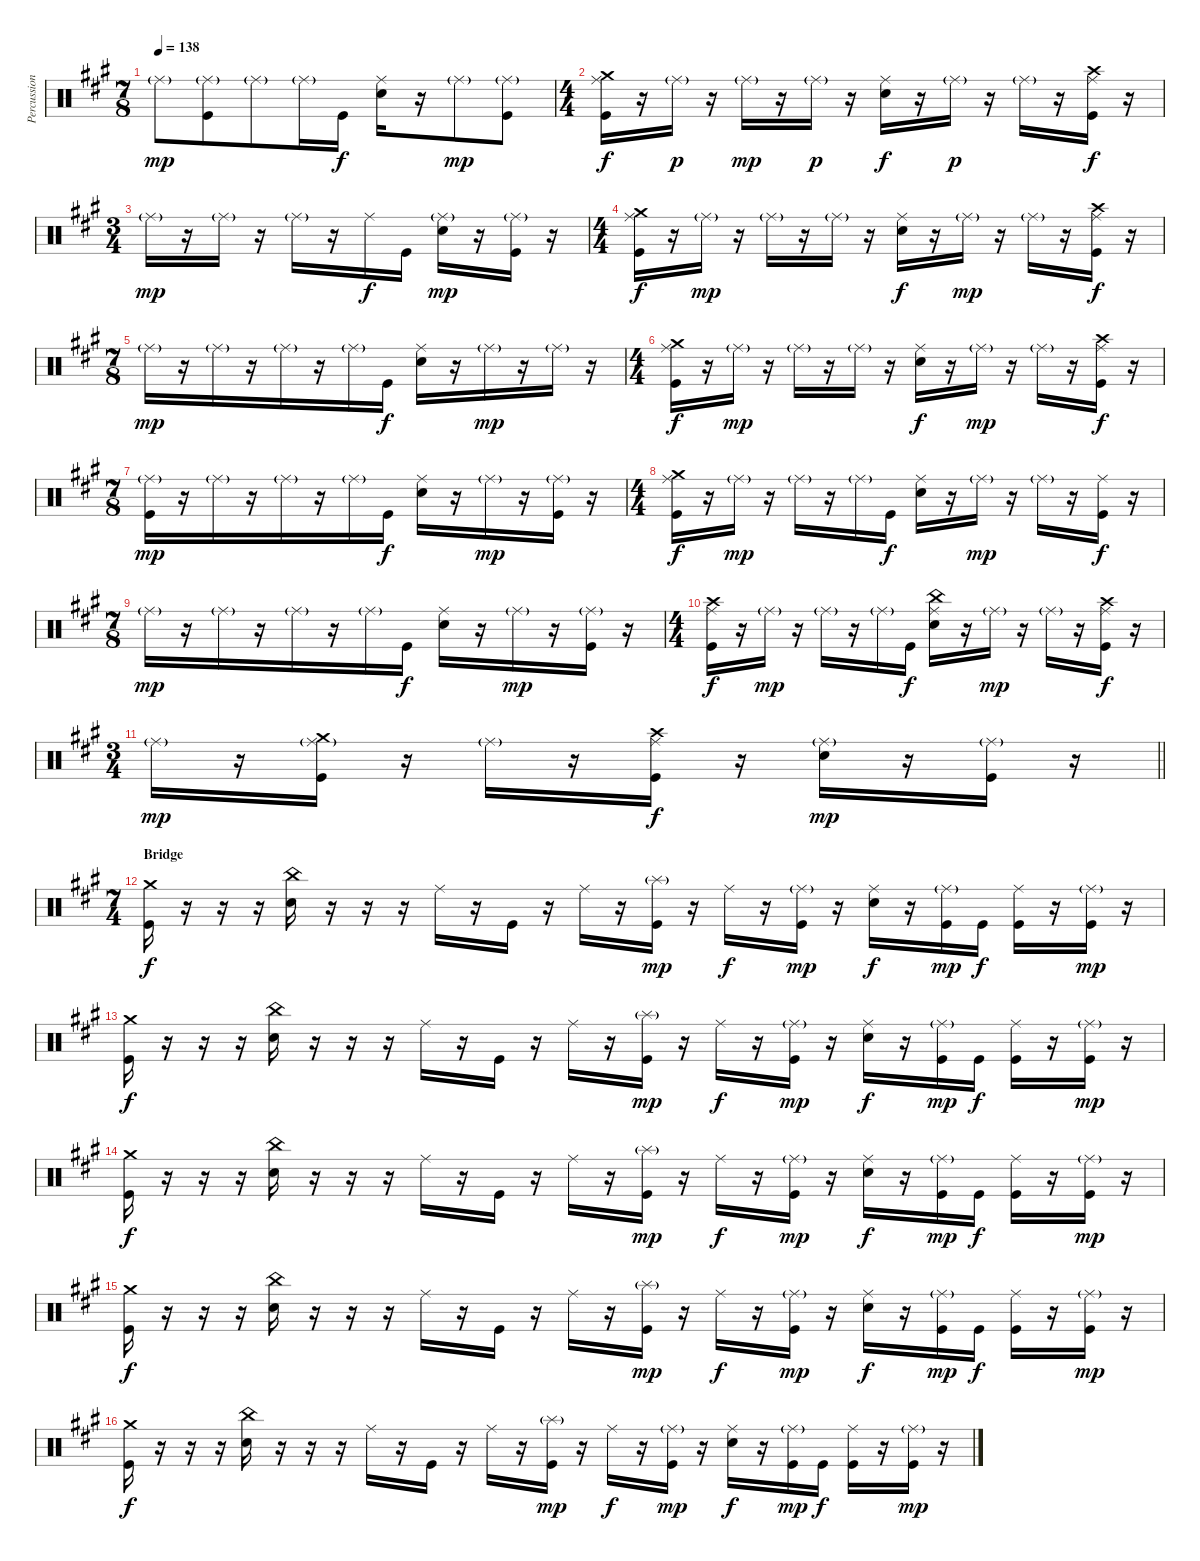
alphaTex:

\track ("Percussion" "Percussion") {instrument percussion}
\staff {score}
\articulation defaults
\ts (7 8)
\tempo 138
\clef neutral
\ks a "Ride (middle)"{g}.8{dy mp}
("Ride (middle)"{g} "Kick (hit)").8 "Ride (middle)"{g}.8 "Ride (middle)"{g}.16 "Kick (hit)".16{dy f} ("Ride (middle)" "Electric Snare (hit)").16 r.16 "Ride (middle)"{g}.8{dy mp} ("Ride (middle)"{g} "Kick (hit)").8 |
\ts (4 4)
("Ride (middle)" "Crash medium (hit)" "Kick (hit)").16{dy f} r.16 "Ride (middle)"{g}.16{dy p} r.16 "Ride (middle)"{g}.16{dy mp} r.16 "Ride (middle)"{g}.16{dy p} r.16 ("Ride (middle)" "Electric Snare (hit)").16{dy f} r.16 "Ride (middle)"{g}.16{dy p} r.16 "Ride (middle)"{g}.16 r.16 ("Ride (middle)" "Crash high (hit)" "Kick (hit)").16{dy f} r.16 |
\ts (3 4)
"Ride (middle)"{g}.16{dy mp} r.16 "Ride (middle)"{g}.16 r.16 "Ride (middle)"{g}.16 r.16 "Ride (middle)".16{dy f} "Kick (hit)".16 ("Ride (middle)"{g} "Electric Snare (hit)").16{dy mp} r.16 ("Ride (middle)"{g} "Kick (hit)").16 r.16 |
\ts (4 4)
("Ride (middle)" "Crash medium (hit)" "Kick (hit)").16{dy f} r.16 "Ride (middle)"{g}.16{dy mp} r.16 "Ride (middle)"{g}.16 r.16 "Ride (middle)"{g}.16 r.16 ("Ride (middle)" "Electric Snare (hit)").16{dy f} r.16 "Ride (middle)"{g}.16{dy mp} r.16 "Ride (middle)"{g}.16 r.16 ("Ride (middle)" "Crash high (hit)" "Kick (hit)").16{dy f} r.16 |
\ts (7 8)
"Ride (middle)"{g}.16{dy mp} r.16 "Ride (middle)"{g}.16 r.16 "Ride (middle)"{g}.16 r.16 "Ride (middle)"{g}.16 "Kick (hit)".16{dy f} ("Ride (middle)" "Electric Snare (hit)").16 r.16 "Ride (middle)"{g}.16{dy mp} r.16 "Ride (middle)"{g}.16 r.16 |
\ts (4 4)
("Ride (middle)" "Crash medium (hit)" "Kick (hit)").16{dy f} r.16 "Ride (middle)"{g}.16{dy mp} r.16 "Ride (middle)"{g}.16 r.16 "Ride (middle)"{g}.16 r.16 ("Ride (middle)" "Electric Snare (hit)").16{dy f} r.16 "Ride (middle)"{g}.16{dy mp} r.16 "Ride (middle)"{g}.16 r.16 ("Ride (middle)" "Crash high (hit)" "Kick (hit)").16{dy f} r.16 |
\ts (7 8)
("Ride (middle)"{g} "Kick (hit)").16{dy mp} r.16 "Ride (middle)"{g}.16 r.16 "Ride (middle)"{g}.16 r.16 "Ride (middle)"{g}.16 "Kick (hit)".16{dy f} ("Ride (middle)" "Electric Snare (hit)").16 r.16 "Ride (middle)"{g}.16{dy mp} r.16 ("Ride (middle)"{g} "Kick (hit)").16 r.16 |
\ts (4 4)
("Ride (middle)" "Crash medium (hit)" "Kick (hit)").16{dy f} r.16 "Ride (middle)"{g}.16{dy mp} r.16 "Ride (middle)"{g}.16 r.16 "Ride (middle)"{g}.16 "Kick (hit)".16{dy f} ("Ride (middle)" "Electric Snare (hit)").16 r.16 "Ride (middle)"{g}.16{dy mp} r.16 "Ride (middle)"{g}.16 r.16 ("Ride (middle)" "Kick (hit)").16{dy f} r.16 |
\ts (7 8)
"Ride (middle)"{g}.16{dy mp} r.16 "Ride (middle)"{g}.16 r.16 "Ride (middle)"{g}.16 r.16 "Ride (middle)"{g}.16 "Kick (hit)".16{dy f} ("Ride (middle)" "Electric Snare (hit)").16 r.16 "Ride (middle)"{g}.16{dy mp} r.16 ("Ride (middle)"{g} "Kick (hit)").16 r.16 |
\ts (4 4)
("Ride (middle)" "Crash high (hit)" "Kick (hit)").16{dy f} r.16 "Ride (middle)"{g}.16{dy mp} r.16 "Ride (middle)"{g}.16 r.16 "Ride (middle)"{g}.16 "Kick (hit)".16{dy f} ("Ride (middle)" "China (hit)" "Electric Snare (hit)").16 r.16 "Ride (middle)"{g}.16{dy mp} r.16 "Ride (middle)"{g}.16 r.16 ("Ride (middle)" "Crash high (hit)" "Kick (hit)").16{dy f} r.16 |
\ts (3 4)
\barLineRight lightlight "Ride (middle)"{g}.16{dy mp}
r.16 ("Ride (middle)"{g} "Crash medium (hit)" "Kick (hit)").16 r.16 "Ride (middle)"{g}.16 r.16 ("Ride (middle)" "Crash high (hit)" "Kick (hit)").16{dy f} r.16 ("Ride (middle)"{g} "Electric Snare (hit)").16{dy mp} r.16 ("Ride (middle)"{g} "Kick (hit)").16 r.16 |
\ts (7 4)
\section ("" "Bridge")
("Crash medium (hit)" "Kick (hit)").16{dy f} r.16 r.16 r.16 ("China (hit)" "Electric Snare (hit)").16 r.16 r.16 r.16 "Ride (middle)".16 r.16 "Kick (hit)".16 r.16 "Ride (middle)".16 r.16 ("Splash (hit)"{g} "Kick (hit)").16{dy mp} r.16 "Ride (middle)".16{dy f} r.16 ("Ride (middle)"{g} "Kick (hit)").16{dy mp} r.16 ("Ride (middle)" "Electric Snare (hit)").16{dy f} r.16 ("Ride (middle)"{g} "Kick (hit)").16{dy mp} "Kick (hit)".16{dy f} ("Ride (middle)" "Kick (hit)").16 r.16 ("Ride (middle)"{g} "Kick (hit)").16{dy mp} r.16 |
("Crash medium (hit)" "Kick (hit)").16{dy f} r.16 r.16 r.16 ("China (hit)" "Electric Snare (hit)").16 r.16 r.16 r.16 "Ride (middle)".16 r.16 "Kick (hit)".16 r.16 "Ride (middle)".16 r.16 ("Splash (hit)"{g} "Kick (hit)").16{dy mp} r.16 "Ride (middle)".16{dy f} r.16 ("Ride (middle)"{g} "Kick (hit)").16{dy mp} r.16 ("Ride (middle)" "Electric Snare (hit)").16{dy f} r.16 ("Ride (middle)"{g} "Kick (hit)").16{dy mp} "Kick (hit)".16{dy f} ("Ride (middle)" "Kick (hit)").16 r.16 ("Ride (middle)"{g} "Kick (hit)").16{dy mp} r.16 |
("Crash medium (hit)" "Kick (hit)").16{dy f} r.16 r.16 r.16 ("China (hit)" "Electric Snare (hit)").16 r.16 r.16 r.16 "Ride (middle)".16 r.16 "Kick (hit)".16 r.16 "Ride (middle)".16 r.16 ("Splash (hit)"{g} "Kick (hit)").16{dy mp} r.16 "Ride (middle)".16{dy f} r.16 ("Ride (middle)"{g} "Kick (hit)").16{dy mp} r.16 ("Ride (middle)" "Electric Snare (hit)").16{dy f} r.16 ("Ride (middle)"{g} "Kick (hit)").16{dy mp} "Kick (hit)".16{dy f} ("Ride (middle)" "Kick (hit)").16 r.16 ("Ride (middle)"{g} "Kick (hit)").16{dy mp} r.16 |
("Crash medium (hit)" "Kick (hit)").16{dy f} r.16 r.16 r.16 ("China (hit)" "Electric Snare (hit)").16 r.16 r.16 r.16 "Ride (middle)".16 r.16 "Kick (hit)".16 r.16 "Ride (middle)".16 r.16 ("Splash (hit)"{g} "Kick (hit)").16{dy mp} r.16 "Ride (middle)".16{dy f} r.16 ("Ride (middle)"{g} "Kick (hit)").16{dy mp} r.16 ("Ride (middle)" "Electric Snare (hit)").16{dy f} r.16 ("Ride (middle)"{g} "Kick (hit)").16{dy mp} "Kick (hit)".16{dy f} ("Ride (middle)" "Kick (hit)").16 r.16 ("Ride (middle)"{g} "Kick (hit)").16{dy mp} r.16 |
("Crash medium (hit)" "Kick (hit)").16{dy f} r.16 r.16 r.16 ("China (hit)" "Electric Snare (hit)").16 r.16 r.16 r.16 "Ride (middle)".16 r.16 "Kick (hit)".16 r.16 "Ride (middle)".16 r.16 ("Splash (hit)"{g} "Kick (hit)").16{dy mp} r.16 "Ride (middle)".16{dy f} r.16 ("Ride (middle)"{g} "Kick (hit)").16{dy mp} r.16 ("Ride (middle)" "Electric Snare (hit)").16{dy f} r.16 ("Ride (middle)"{g} "Kick (hit)").16{dy mp} "Kick (hit)".16{dy f} ("Ride (middle)" "Kick (hit)").16 r.16 ("Ride (middle)"{g} "Kick (hit)").16{dy mp} r.16
